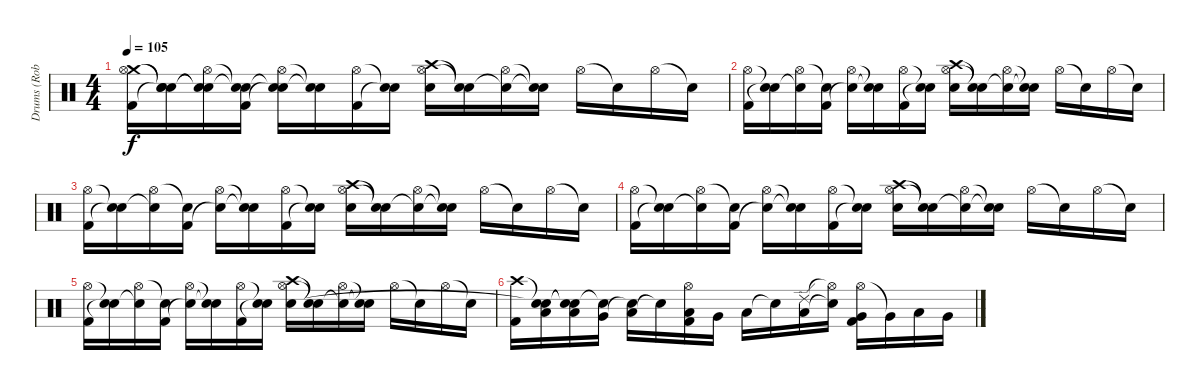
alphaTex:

\track ("Drums (Rob Bourdon)" "Drums (Rob") {instrument percussion}
\staff {score}
\articulation defaults
\ts (4 4)
\tempo 105
\clef neutral
\ks c
("Crash medium (hit)" "Hi-Hat (open)" "Kick (hit) 2").16{dy f} ("Snare (hit)"{t} "Snare (hit)"{t} "Snare (hit)"{t}).16 ("Snare (hit)"{t} "Hi-Hat (open)" "Snare (hit)"{t}).16 ("Snare (hit)"{t} "Snare (hit)"{t} "Kick (hit) 2").16 ("Snare (hit)"{t} "Hi-Hat (open)" "Snare (hit)"{t}).16 ("Snare (hit)"{t} "Snare (hit)"{t}).16 ("Hi-Hat (open)" "Kick (hit) 2").16 ("Snare (hit)"{t} "Snare (hit)"{t}).16 ("Crash high (hit)" "Hi-Hat (open)" "Electric Snare (hit)").16 ("Snare (hit)"{t} "Snare (hit)"{t}).16 ("Hi-Hat (open)" "Snare (hit)"{t}).16 ("Snare (hit)"{t} "Snare (hit)"{t}).16 "Hi-Hat (open)".16 "Snare (hit)"{t}.16 "Hi-Hat (open)".16 "Snare (hit)"{t}.16 |
("Hi-Hat (open)" "Kick (hit) 2").16 ("Snare (hit)"{t} "Snare (hit)"{t}).16 ("Hi-Hat (open)" "Snare (hit)"{t}).16 ("Snare (hit)"{t} "Kick (hit) 2").16 ("Hi-Hat (open)" "Snare (hit)"{t}).16 ("Snare (hit)"{t} "Snare (hit)"{t}).16 ("Hi-Hat (open)" "Kick (hit) 2").16 ("Snare (hit)"{t} "Snare (hit)"{t}).16 ("Crash high (hit)" "Hi-Hat (open)" "Electric Snare (hit)").16 ("Snare (hit)"{t} "Snare (hit)"{t}).16 ("Hi-Hat (open)" "Snare (hit)"{t}).16 ("Snare (hit)"{t} "Snare (hit)"{t}).16 "Hi-Hat (open)".16 "Snare (hit)"{t}.16 "Hi-Hat (open)".16 "Snare (hit)"{t}.16 |
("Hi-Hat (open)" "Kick (hit) 2").16 ("Snare (hit)"{t} "Snare (hit)"{t}).16 ("Hi-Hat (open)" "Snare (hit)"{t}).16 ("Snare (hit)"{t} "Kick (hit) 2").16 ("Hi-Hat (open)" "Snare (hit)"{t}).16 ("Snare (hit)"{t} "Snare (hit)"{t}).16 ("Hi-Hat (open)" "Kick (hit) 2").16 ("Snare (hit)"{t} "Snare (hit)"{t}).16 ("Crash high (hit)" "Hi-Hat (open)" "Electric Snare (hit)").16 ("Snare (hit)"{t} "Snare (hit)"{t}).16 ("Hi-Hat (open)" "Snare (hit)"{t}).16 ("Snare (hit)"{t} "Snare (hit)"{t}).16 "Hi-Hat (open)".16 "Snare (hit)"{t}.16 "Hi-Hat (open)".16 "Snare (hit)"{t}.16 |
("Hi-Hat (open)" "Kick (hit) 2").16 ("Snare (hit)"{t} "Snare (hit)"{t}).16 ("Hi-Hat (open)" "Snare (hit)"{t}).16 ("Snare (hit)"{t} "Kick (hit) 2").16 ("Hi-Hat (open)" "Snare (hit)"{t}).16 ("Snare (hit)"{t} "Snare (hit)"{t}).16 ("Hi-Hat (open)" "Kick (hit) 2").16 ("Snare (hit)"{t} "Snare (hit)"{t}).16 ("Crash high (hit)" "Hi-Hat (open)" "Electric Snare (hit)").16 ("Snare (hit)"{t} "Snare (hit)"{t}).16 ("Hi-Hat (open)" "Snare (hit)"{t}).16 ("Snare (hit)"{t} "Snare (hit)"{t}).16 "Hi-Hat (open)".16 "Snare (hit)"{t}.16 "Hi-Hat (open)".16 "Snare (hit)"{t}.16 |
("Hi-Hat (open)" "Kick (hit) 2").16 ("Snare (hit)"{t} "Snare (hit)"{t}).16 ("Hi-Hat (open)" "Snare (hit)"{t}).16 ("Snare (hit)"{t} "Kick (hit) 2").16 ("Hi-Hat (open)" "Snare (hit)"{t}).16 ("Snare (hit)"{t} "Snare (hit)"{t}).16 ("Hi-Hat (open)" "Kick (hit) 2").16 ("Snare (hit)"{t} "Snare (hit)"{t}).16 ("Crash high (hit)" "Hi-Hat (open)" "Electric Snare (hit)").16 ("Snare (hit)"{t} "Snare (hit)"{t}).16 ("Hi-Hat (open)" "Snare (hit)"{t}).16 ("Snare (hit)"{t} "Snare (hit)"{t}).16 "Hi-Hat (open)".16 "Snare (hit)"{t}.16 "Hi-Hat (open)".16 "Snare (hit)"{t}.16 |
("Crash high (hit)" "Kick (hit) 2").16 ("Snare (hit)"{t} "Low Tom (hit)" "Snare (hit)"{t}).16 ("Snare (hit)"{t} "Low Tom (hit)" "Snare (hit)"{t}).16 ("Snare (hit)"{t} "Very Low Tom (hit)").16 ("Low Floor Tom (hit)" "Snare (hit)"{t}).16 "Snare (hit)"{t}.16 ("Hi-Hat (open)" "Low Tom (hit)" "Kick (hit) 2").16 "Very Low Tom (hit)".16 "Low Floor Tom (hit)".16 "Electric Snare (hit)"{t}.16 ("Ride (edge) 2" "Low Tom (hit)").16 ("Hi-Hat (open)"{t} "Snare (hit)"{t}).16 ("Hi-Hat (open)" "Very Low Tom (hit)" "Kick (hit) 2").16 "Very Low Tom (hit)"{t}.16 "Low Tom (hit)".16 "Very Low Tom (hit)".16
